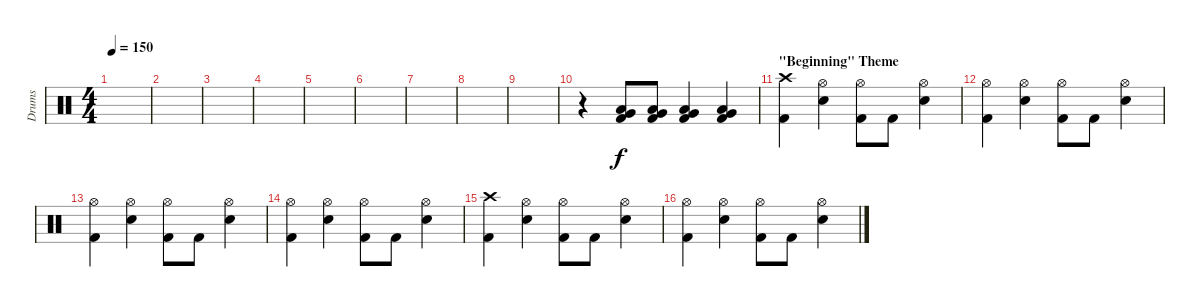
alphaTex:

\track ("Drums" "Drums") {instrument percussion}
\staff {score}
\articulation defaults
\ts (4 4)
\tempo 150
\clef neutral
\ks c
|
|
|
|
|
|
|
|
|
r.4 ("Low Tom (hit)" "Very Low Tom (hit)" "Kick (hit) 2").8 ("Low Tom (hit)" "Very Low Tom (hit)" "Kick (hit) 2").8 ("Low Tom (hit)" "Very Low Tom (hit)" "Kick (hit) 2").4 ("Low Tom (hit)" "Very Low Tom (hit)" "Kick (hit) 2").4 |
\section ("" "\"Beginning\" Theme")
("Crash high (hit)" "Kick (hit) 2").4 ("Hi-Hat (open)" "Electric Snare (hit)").4 ("Hi-Hat (open)" "Kick (hit) 2").8 "Kick (hit) 2".8 ("Hi-Hat (open)" "Electric Snare (hit)").4 |
("Hi-Hat (open)" "Kick (hit) 2").4 ("Hi-Hat (open)" "Electric Snare (hit)").4 ("Hi-Hat (open)" "Kick (hit) 2").8 "Kick (hit) 2".8 ("Hi-Hat (open)" "Electric Snare (hit)").4 |
("Hi-Hat (open)" "Kick (hit) 2").4 ("Hi-Hat (open)" "Electric Snare (hit)").4 ("Hi-Hat (open)" "Kick (hit) 2").8 "Kick (hit) 2".8 ("Hi-Hat (open)" "Electric Snare (hit)").4 |
("Hi-Hat (open)" "Kick (hit) 2").4 ("Hi-Hat (open)" "Electric Snare (hit)").4 ("Hi-Hat (open)" "Kick (hit) 2").8 "Kick (hit) 2".8 ("Hi-Hat (open)" "Electric Snare (hit)").4 |
("Crash high (hit)" "Kick (hit) 2").4 ("Hi-Hat (open)" "Electric Snare (hit)").4 ("Hi-Hat (open)" "Kick (hit) 2").8 "Kick (hit) 2".8 ("Hi-Hat (open)" "Electric Snare (hit)").4 |
("Hi-Hat (open)" "Kick (hit) 2").4 ("Hi-Hat (open)" "Electric Snare (hit)").4 ("Hi-Hat (open)" "Kick (hit) 2").8 "Kick (hit) 2".8 ("Hi-Hat (open)" "Electric Snare (hit)").4
